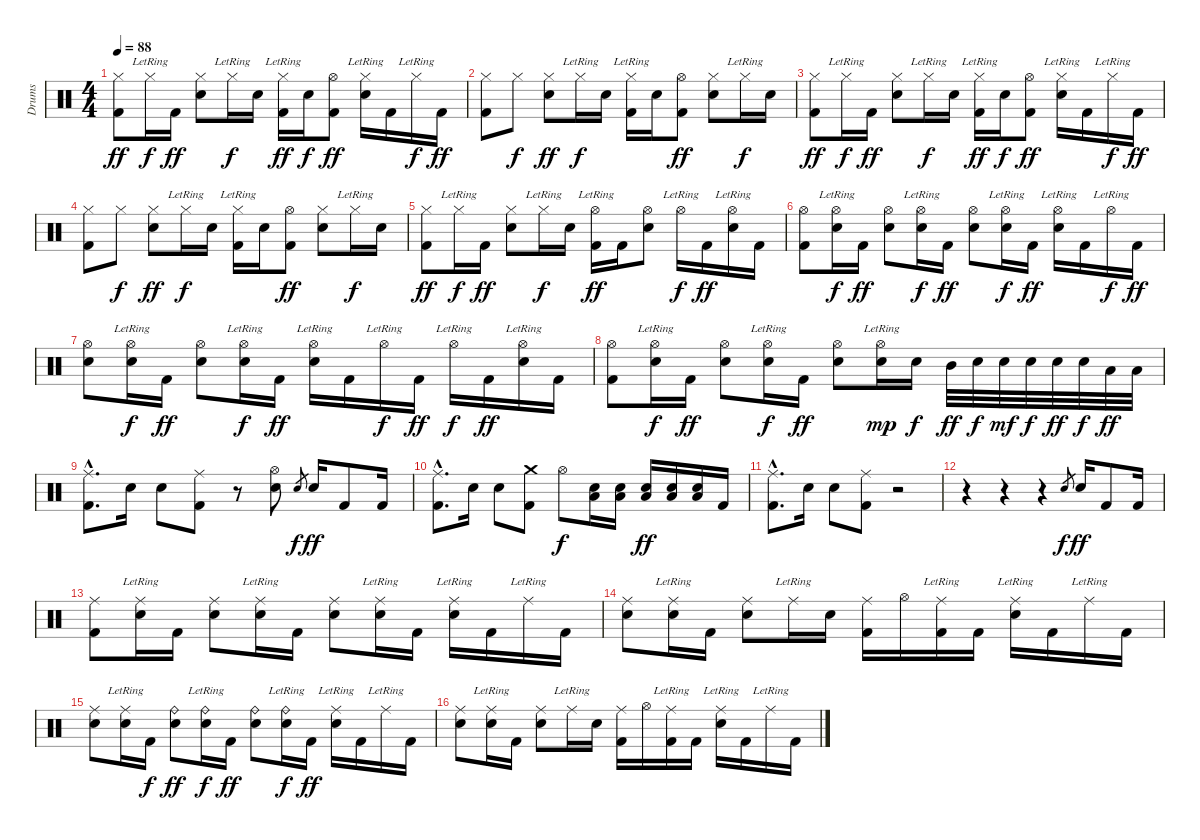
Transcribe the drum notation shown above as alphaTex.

\track ("Drums" "Drums") {instrument percussion}
\staff {score}
\articulation defaults
\ts (4 4)
\tempo 88
\clef neutral
\ks c
("Hi-Hat (closed)" "Kick (hit) 2").8{dy ff} "Hi-Hat (closed)"{lr}.16{dy f} "Kick (hit) 2".16{dy ff} ("Hi-Hat (closed)" "Electric Snare (hit)").8 "Hi-Hat (closed)"{lr}.16{dy f} "Electric Snare (hit)".16 ("Hi-Hat (closed)"{lr} "Kick (hit) 2").16{dy ff} "Electric Snare (hit)".16{dy f} ("Hi-Hat (open)" "Kick (hit) 2").8{dy ff} ("Hi-Hat (closed)"{lr} "Electric Snare (hit)").16 "Kick (hit) 2".16 "Hi-Hat (closed)"{lr}.16{dy f} "Kick (hit) 2".16{dy ff} |
("Hi-Hat (closed)" "Kick (hit) 2").8 "Hi-Hat (closed)".8{dy f} ("Hi-Hat (closed)" "Electric Snare (hit)").8{dy ff} "Hi-Hat (closed)"{lr}.16{dy f} "Electric Snare (hit)".16 ("Hi-Hat (closed)"{lr} "Kick (hit) 2").16 "Electric Snare (hit)".16 ("Hi-Hat (open)" "Kick (hit) 2").8{dy ff} ("Hi-Hat (closed)" "Electric Snare (hit)").8 "Hi-Hat (closed)"{lr}.16{dy f} "Electric Snare (hit)".16 |
("Hi-Hat (closed)" "Kick (hit) 2").8{dy ff} "Hi-Hat (closed)"{lr}.16{dy f} "Kick (hit) 2".16{dy ff} ("Hi-Hat (closed)" "Electric Snare (hit)").8 "Hi-Hat (closed)"{lr}.16{dy f} "Electric Snare (hit)".16 ("Hi-Hat (closed)"{lr} "Kick (hit) 2").16{dy ff} "Electric Snare (hit)".16{dy f} ("Hi-Hat (open)" "Kick (hit) 2").8{dy ff} ("Hi-Hat (closed)"{lr} "Electric Snare (hit)").16 "Kick (hit) 2".16 "Hi-Hat (closed)"{lr}.16{dy f} "Kick (hit) 2".16{dy ff} |
("Hi-Hat (closed)" "Kick (hit) 2").8 "Hi-Hat (closed)".8{dy f} ("Hi-Hat (closed)" "Electric Snare (hit)").8{dy ff} "Hi-Hat (closed)"{lr}.16{dy f} "Electric Snare (hit)".16 ("Hi-Hat (closed)"{lr} "Kick (hit) 2").16 "Electric Snare (hit)".16 ("Hi-Hat (open)" "Kick (hit) 2").8{dy ff} ("Hi-Hat (closed)" "Electric Snare (hit)").8 "Hi-Hat (closed)"{lr}.16{dy f} "Electric Snare (hit)".16 |
("Hi-Hat (closed)" "Kick (hit) 2").8{dy ff} "Hi-Hat (closed)"{lr}.16{dy f} "Kick (hit) 2".16{dy ff} ("Hi-Hat (closed)" "Electric Snare (hit)").8 "Hi-Hat (closed)"{lr}.16{dy f} "Electric Snare (hit)".16 ("Hi-Hat (open)"{lr} "Kick (hit) 2").16{dy ff} "Kick (hit) 2".16 ("Hi-Hat (open)" "Electric Snare (hit)").8 "Hi-Hat (open)"{lr}.16{dy f} "Kick (hit) 2".16{dy ff} ("Hi-Hat (open)"{lr} "Electric Snare (hit)").16 "Kick (hit) 2".16 |
("Hi-Hat (open)" "Kick (hit) 2").8 ("Hi-Hat (open)"{lr} "Electric Snare (hit)").16{dy f} "Kick (hit) 2".16{dy ff} ("Hi-Hat (open)" "Electric Snare (hit)").8 ("Hi-Hat (open)"{lr} "Electric Snare (hit)").16{dy f} "Kick (hit) 2".16{dy ff} ("Hi-Hat (open)" "Electric Snare (hit)").8 ("Hi-Hat (open)"{lr} "Electric Snare (hit)").16{dy f} "Kick (hit) 2".16{dy ff} ("Hi-Hat (open)"{lr} "Electric Snare (hit)").16 "Kick (hit) 2".16 "Hi-Hat (open)"{lr}.16{dy f} "Kick (hit) 2".16{dy ff} |
("Hi-Hat (open)" "Electric Snare (hit)").8 ("Hi-Hat (open)"{lr} "Electric Snare (hit)").16{dy f} "Kick (hit) 2".16{dy ff} ("Hi-Hat (open)" "Electric Snare (hit)").8 ("Hi-Hat (open)"{lr} "Electric Snare (hit)").16{dy f} "Kick (hit) 2".16{dy ff} ("Hi-Hat (open)"{lr} "Electric Snare (hit)").16 "Kick (hit) 2".16 "Hi-Hat (open)"{lr}.16{dy f} "Kick (hit) 2".16{dy ff} "Hi-Hat (open)"{lr}.16{dy f} "Kick (hit) 2".16{dy ff} ("Hi-Hat (open)"{lr} "Electric Snare (hit)").16 "Kick (hit) 2".16 |
("Hi-Hat (open)" "Kick (hit) 2").8 ("Hi-Hat (open)"{lr} "Electric Snare (hit)").16{dy f} "Kick (hit) 2".16{dy ff} ("Hi-Hat (open)" "Electric Snare (hit)").8 ("Hi-Hat (open)"{lr} "Electric Snare (hit)").16{dy f} "Kick (hit) 2".16{dy ff} ("Hi-Hat (open)" "Electric Snare (hit)").8 ("Hi-Hat (open)"{lr} "Electric Snare (hit)").16{dy mp} "Electric Snare (hit)".16{dy f} "Mid Tom (hit)".32{dy ff} "Electric Snare (hit)".32{dy f} "Electric Snare (hit)".32{dy mf} "Electric Snare (hit)".32{dy f} "Electric Snare (hit)".32{dy ff} "Electric Snare (hit)".32{dy f} "Low Tom (hit)".32{dy ff} "Low Tom (hit)".32 |
("Ride (middle)"{hac} "Kick (hit) 2"{hac}).8{d} "Electric Snare (hit)".16 "Electric Snare (hit)".8 ("Ride (middle)" "Kick (hit) 2").8 r.8 ("Hi-Hat (open)" "Electric Snare (hit)").8 "Electric Snare (hit)".8{gr dy f} "Electric Snare (hit)".16{dy ff} "Kick (hit) 2".8 "Kick (hit) 2".16 |
("Ride (middle)"{hac} "Kick (hit) 2"{hac}).8{d} "Electric Snare (hit)".16 "Electric Snare (hit)".8 ("Crash medium (hit)" "Kick (hit) 2").8 "Hi-Hat (open)".8{dy f} ("Electric Snare (hit)" "Low Tom (hit)").16 ("Electric Snare (hit)" "Low Tom (hit)").16 ("Electric Snare (hit)" "Low Tom (hit)").16{dy ff} ("Electric Snare (hit)" "Low Tom (hit)").16 ("Electric Snare (hit)" "Low Tom (hit)").16 "Kick (hit) 2".16 |
("Ride (middle)"{hac} "Kick (hit) 2"{hac}).8{d} "Electric Snare (hit)".16 "Electric Snare (hit)".8 ("Ride (middle)" "Kick (hit) 2").8 r.2 |
r.4 r.4 r.4 "Electric Snare (hit)".8{gr dy f} "Electric Snare (hit)".16{dy ff} "Kick (hit) 2".8 "Kick (hit) 2".16 |
("Ride (middle)" "Kick (hit) 2").8 ("Ride (middle)"{lr} "Electric Snare (hit)").16 "Kick (hit) 2".16 ("Ride (middle)" "Electric Snare (hit)").8 ("Ride (middle)"{lr} "Electric Snare (hit)").16 "Kick (hit) 2".16 ("Ride (middle)" "Electric Snare (hit)").8 ("Ride (middle)"{lr} "Electric Snare (hit)").16 "Kick (hit) 2".16 ("Ride (middle)"{lr} "Electric Snare (hit)").16 "Kick (hit) 2".16 "Ride (middle)"{lr}.16 "Kick (hit) 2".16 |
("Ride (middle)" "Electric Snare (hit)").8 ("Ride (middle)"{lr} "Electric Snare (hit)").16 "Kick (hit) 2".16 ("Ride (middle)" "Electric Snare (hit)").8 "Ride (middle)"{lr}.16 "Electric Snare (hit)".16 ("Ride (middle)" "Kick (hit) 2").16 "Hi-Hat (open)".16 ("Ride (middle)"{lr} "Kick (hit) 2").16 "Kick (hit) 2".16 ("Ride (middle)"{lr} "Electric Snare (hit)").16 "Kick (hit) 2".16 "Ride (middle)"{lr}.16 "Kick (hit) 2".16 |
("Ride (middle)" "Electric Snare (hit)").8 ("Ride (middle)"{lr} "Electric Snare (hit)").16 "Kick (hit) 2".16{dy f} ("Ride (bell)" "Electric Snare (hit)").8{dy ff} ("Ride (bell)"{lr} "Electric Snare (hit)").16{dy f} "Kick (hit) 2".16{dy ff} ("Ride (bell)" "Electric Snare (hit)").8 ("Ride (bell)"{lr} "Electric Snare (hit)").16{dy f} "Kick (hit) 2".16{dy ff} ("Ride (middle)"{lr} "Electric Snare (hit)").16 "Kick (hit) 2".16 "Ride (middle)"{lr}.16 "Kick (hit) 2".16 |
("Ride (middle)" "Electric Snare (hit)").8 ("Ride (middle)"{lr} "Electric Snare (hit)").16 "Kick (hit) 2".16 ("Ride (middle)" "Electric Snare (hit)").8 "Ride (middle)"{lr}.16 "Electric Snare (hit)".16 ("Ride (middle)" "Kick (hit) 2").16 "Hi-Hat (open)".16 ("Ride (middle)"{lr} "Kick (hit) 2").16 "Kick (hit) 2".16 ("Ride (middle)"{lr} "Electric Snare (hit)").16 "Kick (hit) 2".16 "Ride (middle)"{lr}.16 "Kick (hit) 2".16
